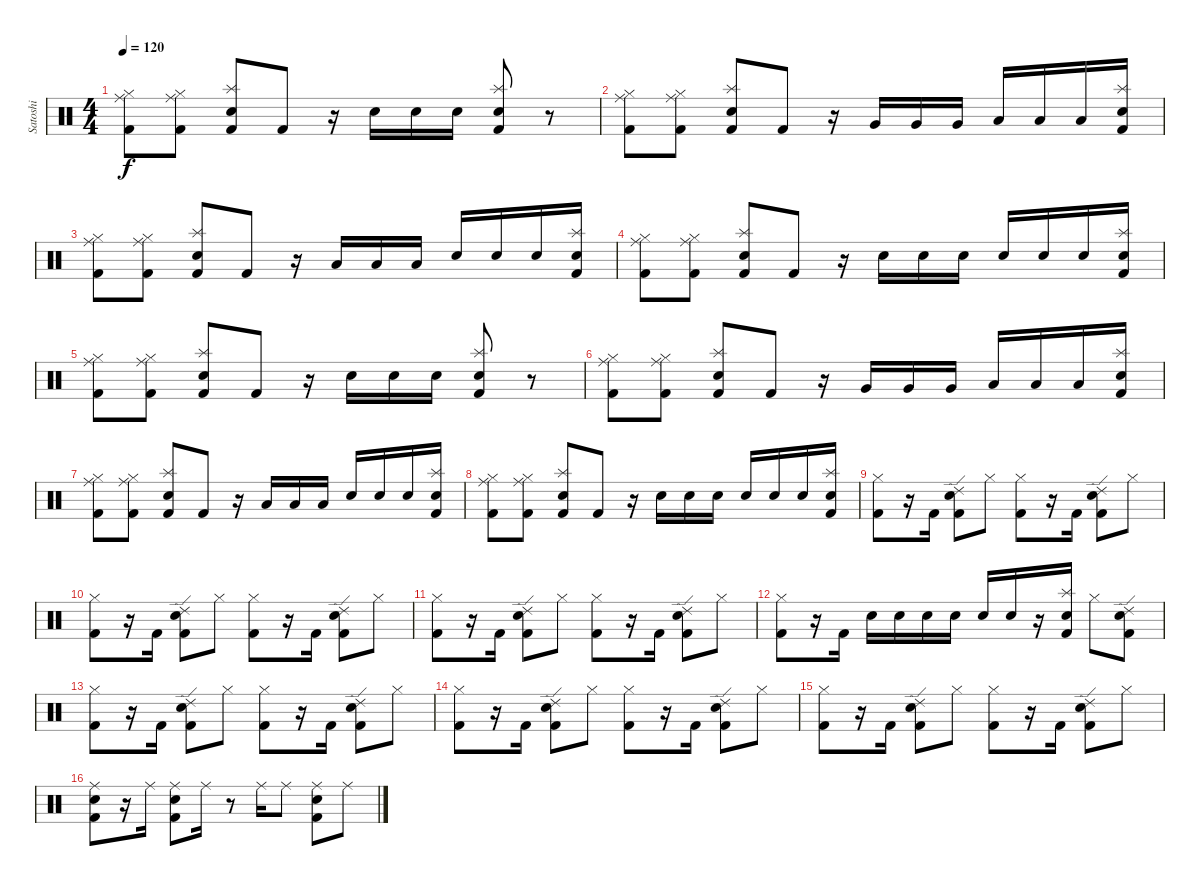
\track ("Satoshi" "Satoshi") {instrument percussion}
\staff {score}
\articulation defaults
\ts (4 4)
\tempo 120
\clef neutral
\ks c
("Ride (middle)" "Hi-Hat (closed)" "Kick (hit) 2").8{dy f} ("Ride (middle)" "Hi-Hat (closed)" "Kick (hit) 2").8 ("Splash (hit)" "Electric Snare (hit)" "Kick (hit) 2").8 "Kick (hit) 2".8 r.16 "Electric Snare (hit)".16 "Electric Snare (hit)".16 "Electric Snare (hit)".16 ("Splash (hit)" "Electric Snare (hit)" "Kick (hit) 2").8 r.8 |
("Ride (middle)" "Hi-Hat (closed)" "Kick (hit) 2").8 ("Ride (middle)" "Hi-Hat (closed)" "Kick (hit) 2").8 ("Splash (hit)" "Electric Snare (hit)" "Kick (hit) 2").8 "Kick (hit) 2".8 r.16 "Very Low Tom (hit)".16 "Very Low Tom (hit)".16 "Very Low Tom (hit)".16 "Low Floor Tom (hit)".16 "Low Floor Tom (hit)".16 "Low Floor Tom (hit)".16 ("Splash (hit)" "Electric Snare (hit)" "Kick (hit) 2").16 |
("Ride (middle)" "Hi-Hat (closed)" "Kick (hit) 2").8 ("Ride (middle)" "Hi-Hat (closed)" "Kick (hit) 2").8 ("Splash (hit)" "Electric Snare (hit)" "Kick (hit) 2").8 "Kick (hit) 2".8 r.16 "Low Floor Tom (hit)".16 "Low Floor Tom (hit)".16 "Low Floor Tom (hit)".16 "Electric Snare (hit)".16 "Electric Snare (hit)".16 "Electric Snare (hit)".16 ("Splash (hit)" "Electric Snare (hit)" "Kick (hit) 2").16 |
("Ride (middle)" "Hi-Hat (closed)" "Kick (hit) 2").8 ("Ride (middle)" "Hi-Hat (closed)" "Kick (hit) 2").8 ("Splash (hit)" "Electric Snare (hit)" "Kick (hit) 2").8 "Kick (hit) 2".8 r.16 "Electric Snare (hit)".16 "Electric Snare (hit)".16 "Electric Snare (hit)".16 "Electric Snare (hit)".16 "Electric Snare (hit)".16 "Electric Snare (hit)".16 ("Splash (hit)" "Electric Snare (hit)" "Kick (hit) 2").16 |
("Ride (middle)" "Hi-Hat (closed)" "Kick (hit) 2").8 ("Ride (middle)" "Hi-Hat (closed)" "Kick (hit) 2").8 ("Splash (hit)" "Electric Snare (hit)" "Kick (hit) 2").8 "Kick (hit) 2".8 r.16 "Electric Snare (hit)".16 "Electric Snare (hit)".16 "Electric Snare (hit)".16 ("Splash (hit)" "Electric Snare (hit)" "Kick (hit) 2").8 r.8 |
("Ride (middle)" "Hi-Hat (closed)" "Kick (hit) 2").8 ("Ride (middle)" "Hi-Hat (closed)" "Kick (hit) 2").8 ("Splash (hit)" "Electric Snare (hit)" "Kick (hit) 2").8 "Kick (hit) 2".8 r.16 "Very Low Tom (hit)".16 "Very Low Tom (hit)".16 "Very Low Tom (hit)".16 "Low Floor Tom (hit)".16 "Low Floor Tom (hit)".16 "Low Floor Tom (hit)".16 ("Splash (hit)" "Electric Snare (hit)" "Kick (hit) 2").16 |
("Ride (middle)" "Hi-Hat (closed)" "Kick (hit) 2").8 ("Ride (middle)" "Hi-Hat (closed)" "Kick (hit) 2").8 ("Splash (hit)" "Electric Snare (hit)" "Kick (hit) 2").8 "Kick (hit) 2".8 r.16 "Low Floor Tom (hit)".16 "Low Floor Tom (hit)".16 "Low Floor Tom (hit)".16 "Electric Snare (hit)".16 "Electric Snare (hit)".16 "Electric Snare (hit)".16 ("Splash (hit)" "Electric Snare (hit)" "Kick (hit) 2").16 |
("Ride (middle)" "Hi-Hat (closed)" "Kick (hit) 2").8 ("Ride (middle)" "Hi-Hat (closed)" "Kick (hit) 2").8 ("Splash (hit)" "Electric Snare (hit)" "Kick (hit) 2").8 "Kick (hit) 2".8 r.16 "Electric Snare (hit)".16 "Electric Snare (hit)".16 "Electric Snare (hit)".16 "Electric Snare (hit)".16 "Electric Snare (hit)".16 "Electric Snare (hit)".16 ("Splash (hit)" "Electric Snare (hit)" "Kick (hit) 2").16 |
("Hi-Hat (closed)" "Kick (hit) 2").8 r.16 "Kick (hit) 2".16 ("Ride (edge) 2" "Electric Snare (hit)" "Kick (hit) 2").8 "Hi-Hat (closed)".8 ("Hi-Hat (closed)" "Kick (hit) 2").8 r.16 "Kick (hit) 2".16 ("Ride (edge) 2" "Electric Snare (hit)" "Kick (hit) 2").8 "Hi-Hat (closed)".8 |
("Hi-Hat (closed)" "Kick (hit) 2").8 r.16 "Kick (hit) 2".16 ("Ride (edge) 2" "Electric Snare (hit)" "Kick (hit) 2").8 "Hi-Hat (closed)".8 ("Hi-Hat (closed)" "Kick (hit) 2").8 r.16 "Kick (hit) 2".16 ("Ride (edge) 2" "Electric Snare (hit)" "Kick (hit) 2").8 "Hi-Hat (closed)".8 |
("Hi-Hat (closed)" "Kick (hit) 2").8 r.16 "Kick (hit) 2".16 ("Ride (edge) 2" "Electric Snare (hit)" "Kick (hit) 2").8 "Hi-Hat (closed)".8 ("Hi-Hat (closed)" "Kick (hit) 2").8 r.16 "Kick (hit) 2".16 ("Ride (edge) 2" "Electric Snare (hit)" "Kick (hit) 2").8 "Hi-Hat (closed)".8 |
("Hi-Hat (closed)" "Kick (hit) 2").8 r.16 "Kick (hit) 2".16 "Electric Snare (hit)".16 "Electric Snare (hit)".16 "Electric Snare (hit)".16 "Electric Snare (hit)".16 "Electric Snare (hit)".16 "Electric Snare (hit)".16 r.16 ("Splash (hit)" "Electric Snare (hit)" "Kick (hit) 2").16 "Hi-Hat (closed)".8 ("Ride (edge) 2" "Electric Snare (hit)" "Kick (hit) 2").8 |
("Hi-Hat (closed)" "Kick (hit) 2").8 r.16 "Kick (hit) 2".16 ("Ride (edge) 2" "Electric Snare (hit)" "Kick (hit) 2").8 "Hi-Hat (closed)".8 ("Hi-Hat (closed)" "Kick (hit) 2").8 r.16 "Kick (hit) 2".16 ("Ride (edge) 2" "Electric Snare (hit)" "Kick (hit) 2").8 "Hi-Hat (closed)".8 |
("Hi-Hat (closed)" "Kick (hit) 2").8 r.16 "Kick (hit) 2".16 ("Ride (edge) 2" "Electric Snare (hit)" "Kick (hit) 2").8 "Hi-Hat (closed)".8 ("Hi-Hat (closed)" "Kick (hit) 2").8 r.16 "Kick (hit) 2".16 ("Ride (edge) 2" "Electric Snare (hit)" "Kick (hit) 2").8 "Hi-Hat (closed)".8 |
("Hi-Hat (closed)" "Kick (hit) 2").8 r.16 "Kick (hit) 2".16 ("Ride (edge) 2" "Electric Snare (hit)" "Kick (hit) 2").8 "Hi-Hat (closed)".8 ("Hi-Hat (closed)" "Kick (hit) 2").8 r.16 "Kick (hit) 2".16 ("Ride (edge) 2" "Electric Snare (hit)" "Kick (hit) 2").8 "Hi-Hat (closed)".8 |
("Ride (middle)" "Electric Snare (hit)" "Kick (hit) 2").8 r.16 "Ride (middle)".16 ("Ride (middle)" "Electric Snare (hit)" "Kick (hit) 2").8 "Ride (middle)".16 r.8 "Ride (middle)".16 "Ride (middle)".8 ("Ride (middle)" "Electric Snare (hit)" "Kick (hit) 2").8 "Ride (middle)".8
